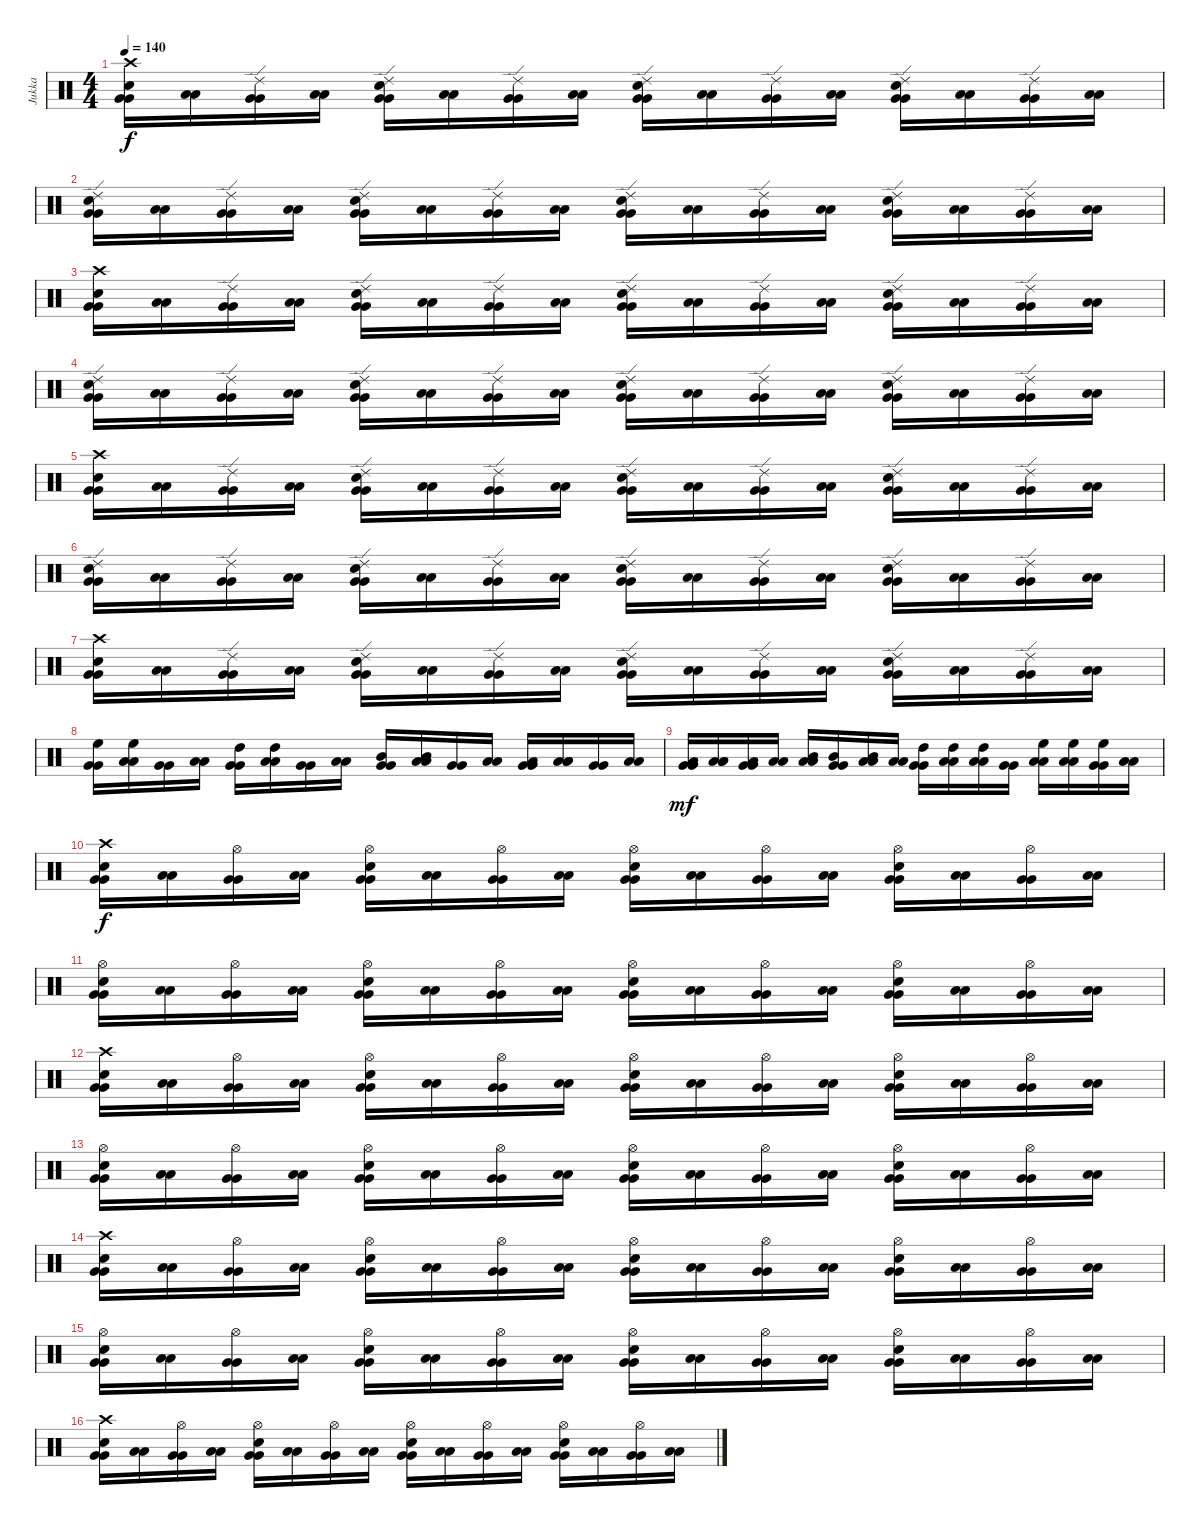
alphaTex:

\track ("Jukka" "Jukka") {instrument percussion}
\staff {score}
\articulation defaults
\ts (4 4)
\tempo 140
\clef neutral
\ks c
("Crash high (hit)" "Electric Snare (hit)" "Very Low Tom (hit)" "Very Low Tom (hit)").16{dy f} ("Low Floor Tom (hit)" "Low Floor Tom (hit)").16 ("Ride (edge) 2" "Very Low Tom (hit)" "Very Low Tom (hit)").16 ("Low Floor Tom (hit)" "Low Floor Tom (hit)").16 ("Ride (edge) 2" "Electric Snare (hit)" "Very Low Tom (hit)" "Very Low Tom (hit)").16 ("Low Floor Tom (hit)" "Low Floor Tom (hit)").16 ("Ride (edge) 2" "Very Low Tom (hit)" "Very Low Tom (hit)").16 ("Low Floor Tom (hit)" "Low Floor Tom (hit)").16 ("Ride (edge) 2" "Electric Snare (hit)" "Very Low Tom (hit)" "Very Low Tom (hit)").16 ("Low Floor Tom (hit)" "Low Floor Tom (hit)").16 ("Ride (edge) 2" "Very Low Tom (hit)" "Very Low Tom (hit)").16 ("Low Floor Tom (hit)" "Low Floor Tom (hit)").16 ("Ride (edge) 2" "Electric Snare (hit)" "Very Low Tom (hit)" "Very Low Tom (hit)").16 ("Low Floor Tom (hit)" "Low Floor Tom (hit)").16 ("Ride (edge) 2" "Very Low Tom (hit)" "Very Low Tom (hit)").16 ("Low Floor Tom (hit)" "Low Floor Tom (hit)").16 |
("Ride (edge) 2" "Electric Snare (hit)" "Very Low Tom (hit)" "Very Low Tom (hit)").16 ("Low Floor Tom (hit)" "Low Floor Tom (hit)").16 ("Ride (edge) 2" "Very Low Tom (hit)" "Very Low Tom (hit)").16 ("Low Floor Tom (hit)" "Low Floor Tom (hit)").16 ("Ride (edge) 2" "Electric Snare (hit)" "Very Low Tom (hit)" "Very Low Tom (hit)").16 ("Low Floor Tom (hit)" "Low Floor Tom (hit)").16 ("Ride (edge) 2" "Very Low Tom (hit)" "Very Low Tom (hit)").16 ("Low Floor Tom (hit)" "Low Floor Tom (hit)").16 ("Ride (edge) 2" "Electric Snare (hit)" "Very Low Tom (hit)" "Very Low Tom (hit)").16 ("Low Floor Tom (hit)" "Low Floor Tom (hit)").16 ("Ride (edge) 2" "Very Low Tom (hit)" "Very Low Tom (hit)").16 ("Low Floor Tom (hit)" "Low Floor Tom (hit)").16 ("Ride (edge) 2" "Electric Snare (hit)" "Very Low Tom (hit)" "Very Low Tom (hit)").16 ("Low Floor Tom (hit)" "Low Floor Tom (hit)").16 ("Ride (edge) 2" "Very Low Tom (hit)" "Very Low Tom (hit)").16 ("Low Floor Tom (hit)" "Low Floor Tom (hit)").16 |
("Crash high (hit)" "Electric Snare (hit)" "Very Low Tom (hit)" "Very Low Tom (hit)").16 ("Low Floor Tom (hit)" "Low Floor Tom (hit)").16 ("Ride (edge) 2" "Very Low Tom (hit)" "Very Low Tom (hit)").16 ("Low Floor Tom (hit)" "Low Floor Tom (hit)").16 ("Ride (edge) 2" "Electric Snare (hit)" "Very Low Tom (hit)" "Very Low Tom (hit)").16 ("Low Floor Tom (hit)" "Low Floor Tom (hit)").16 ("Ride (edge) 2" "Very Low Tom (hit)" "Very Low Tom (hit)").16 ("Low Floor Tom (hit)" "Low Floor Tom (hit)").16 ("Ride (edge) 2" "Electric Snare (hit)" "Very Low Tom (hit)" "Very Low Tom (hit)").16 ("Low Floor Tom (hit)" "Low Floor Tom (hit)").16 ("Ride (edge) 2" "Very Low Tom (hit)" "Very Low Tom (hit)").16 ("Low Floor Tom (hit)" "Low Floor Tom (hit)").16 ("Ride (edge) 2" "Electric Snare (hit)" "Very Low Tom (hit)" "Very Low Tom (hit)").16 ("Low Floor Tom (hit)" "Low Floor Tom (hit)").16 ("Ride (edge) 2" "Very Low Tom (hit)" "Very Low Tom (hit)").16 ("Low Floor Tom (hit)" "Low Floor Tom (hit)").16 |
("Ride (edge) 2" "Electric Snare (hit)" "Very Low Tom (hit)" "Very Low Tom (hit)").16 ("Low Floor Tom (hit)" "Low Floor Tom (hit)").16 ("Ride (edge) 2" "Very Low Tom (hit)" "Very Low Tom (hit)").16 ("Low Floor Tom (hit)" "Low Floor Tom (hit)").16 ("Ride (edge) 2" "Electric Snare (hit)" "Very Low Tom (hit)" "Very Low Tom (hit)").16 ("Low Floor Tom (hit)" "Low Floor Tom (hit)").16 ("Ride (edge) 2" "Very Low Tom (hit)" "Very Low Tom (hit)").16 ("Low Floor Tom (hit)" "Low Floor Tom (hit)").16 ("Ride (edge) 2" "Electric Snare (hit)" "Very Low Tom (hit)" "Very Low Tom (hit)").16 ("Low Floor Tom (hit)" "Low Floor Tom (hit)").16 ("Ride (edge) 2" "Very Low Tom (hit)" "Very Low Tom (hit)").16 ("Low Floor Tom (hit)" "Low Floor Tom (hit)").16 ("Ride (edge) 2" "Electric Snare (hit)" "Very Low Tom (hit)" "Very Low Tom (hit)").16 ("Low Floor Tom (hit)" "Low Floor Tom (hit)").16 ("Ride (edge) 2" "Very Low Tom (hit)" "Very Low Tom (hit)").16 ("Low Floor Tom (hit)" "Low Floor Tom (hit)").16 |
("Crash high (hit)" "Electric Snare (hit)" "Very Low Tom (hit)" "Very Low Tom (hit)").16 ("Low Floor Tom (hit)" "Low Floor Tom (hit)").16 ("Ride (edge) 2" "Very Low Tom (hit)" "Very Low Tom (hit)").16 ("Low Floor Tom (hit)" "Low Floor Tom (hit)").16 ("Ride (edge) 2" "Electric Snare (hit)" "Very Low Tom (hit)" "Very Low Tom (hit)").16 ("Low Floor Tom (hit)" "Low Floor Tom (hit)").16 ("Ride (edge) 2" "Very Low Tom (hit)" "Very Low Tom (hit)").16 ("Low Floor Tom (hit)" "Low Floor Tom (hit)").16 ("Ride (edge) 2" "Electric Snare (hit)" "Very Low Tom (hit)" "Very Low Tom (hit)").16 ("Low Floor Tom (hit)" "Low Floor Tom (hit)").16 ("Ride (edge) 2" "Very Low Tom (hit)" "Very Low Tom (hit)").16 ("Low Floor Tom (hit)" "Low Floor Tom (hit)").16 ("Ride (edge) 2" "Electric Snare (hit)" "Very Low Tom (hit)" "Very Low Tom (hit)").16 ("Low Floor Tom (hit)" "Low Floor Tom (hit)").16 ("Ride (edge) 2" "Very Low Tom (hit)" "Very Low Tom (hit)").16 ("Low Floor Tom (hit)" "Low Floor Tom (hit)").16 |
("Ride (edge) 2" "Electric Snare (hit)" "Very Low Tom (hit)" "Very Low Tom (hit)").16 ("Low Floor Tom (hit)" "Low Floor Tom (hit)").16 ("Ride (edge) 2" "Very Low Tom (hit)" "Very Low Tom (hit)").16 ("Low Floor Tom (hit)" "Low Floor Tom (hit)").16 ("Ride (edge) 2" "Electric Snare (hit)" "Very Low Tom (hit)" "Very Low Tom (hit)").16 ("Low Floor Tom (hit)" "Low Floor Tom (hit)").16 ("Ride (edge) 2" "Very Low Tom (hit)" "Very Low Tom (hit)").16 ("Low Floor Tom (hit)" "Low Floor Tom (hit)").16 ("Ride (edge) 2" "Electric Snare (hit)" "Very Low Tom (hit)" "Very Low Tom (hit)").16 ("Low Floor Tom (hit)" "Low Floor Tom (hit)").16 ("Ride (edge) 2" "Very Low Tom (hit)" "Very Low Tom (hit)").16 ("Low Floor Tom (hit)" "Low Floor Tom (hit)").16 ("Ride (edge) 2" "Electric Snare (hit)" "Very Low Tom (hit)" "Very Low Tom (hit)").16 ("Low Floor Tom (hit)" "Low Floor Tom (hit)").16 ("Ride (edge) 2" "Very Low Tom (hit)" "Very Low Tom (hit)").16 ("Low Floor Tom (hit)" "Low Floor Tom (hit)").16 |
("Crash high (hit)" "Electric Snare (hit)" "Very Low Tom (hit)" "Very Low Tom (hit)").16 ("Low Floor Tom (hit)" "Low Floor Tom (hit)").16 ("Ride (edge) 2" "Very Low Tom (hit)" "Very Low Tom (hit)").16 ("Low Floor Tom (hit)" "Low Floor Tom (hit)").16 ("Ride (edge) 2" "Electric Snare (hit)" "Very Low Tom (hit)" "Very Low Tom (hit)").16 ("Low Floor Tom (hit)" "Low Floor Tom (hit)").16 ("Ride (edge) 2" "Very Low Tom (hit)" "Very Low Tom (hit)").16 ("Low Floor Tom (hit)" "Low Floor Tom (hit)").16 ("Ride (edge) 2" "Electric Snare (hit)" "Very Low Tom (hit)" "Very Low Tom (hit)").16 ("Low Floor Tom (hit)" "Low Floor Tom (hit)").16 ("Ride (edge) 2" "Very Low Tom (hit)" "Very Low Tom (hit)").16 ("Low Floor Tom (hit)" "Low Floor Tom (hit)").16 ("Ride (edge) 2" "Electric Snare (hit)" "Very Low Tom (hit)" "Very Low Tom (hit)").16 ("Low Floor Tom (hit)" "Low Floor Tom (hit)").16 ("Ride (edge) 2" "Very Low Tom (hit)" "Very Low Tom (hit)").16 ("Low Floor Tom (hit)" "Low Floor Tom (hit)").16 |
("High Floor Tom (hit)" "Very Low Tom (hit)" "Very Low Tom (hit)").16 ("High Floor Tom (hit)" "Low Floor Tom (hit)" "Low Floor Tom (hit)").16 ("Very Low Tom (hit)" "Very Low Tom (hit)").16 ("Low Floor Tom (hit)" "Low Floor Tom (hit)").16 ("High Tom (hit)" "Very Low Tom (hit)" "Very Low Tom (hit)").16 ("High Tom (hit)" "Low Floor Tom (hit)" "Low Floor Tom (hit)").16 ("Very Low Tom (hit)" "Very Low Tom (hit)").16 ("Low Floor Tom (hit)" "Low Floor Tom (hit)").16 ("Mid Tom (hit)" "Very Low Tom (hit)" "Very Low Tom (hit)").16 ("Mid Tom (hit)" "Low Floor Tom (hit)" "Low Floor Tom (hit)").16 ("Very Low Tom (hit)" "Very Low Tom (hit)").16 ("Low Floor Tom (hit)" "Low Floor Tom (hit)").16 ("Low Tom (hit)" "Very Low Tom (hit)" "Very Low Tom (hit)").16 ("Low Tom (hit)" "Low Floor Tom (hit)" "Low Floor Tom (hit)").16 ("Very Low Tom (hit)" "Very Low Tom (hit)").16 ("Low Floor Tom (hit)" "Low Floor Tom (hit)").16 |
("Low Tom (hit)" "Very Low Tom (hit)" "Very Low Tom (hit)").16{dy mf} ("Low Tom (hit)" "Low Floor Tom (hit)" "Low Floor Tom (hit)").16 ("Low Tom (hit)" "Very Low Tom (hit)" "Very Low Tom (hit)").16 ("Low Floor Tom (hit)" "Low Floor Tom (hit)").16 ("Mid Tom (hit)" "Low Floor Tom (hit)" "Low Floor Tom (hit)").16 ("Mid Tom (hit)" "Very Low Tom (hit)" "Very Low Tom (hit)").16 ("Mid Tom (hit)" "Low Floor Tom (hit)" "Low Floor Tom (hit)").16 ("Low Floor Tom (hit)" "Low Floor Tom (hit)").16 ("High Tom (hit)" "Very Low Tom (hit)" "Very Low Tom (hit)").16 ("High Tom (hit)" "Low Floor Tom (hit)" "Low Floor Tom (hit)").16 ("High Tom (hit)" "Low Floor Tom (hit)" "Low Floor Tom (hit)").16 ("Very Low Tom (hit)" "Very Low Tom (hit)").16 ("High Floor Tom (hit)" "Low Floor Tom (hit)" "Low Floor Tom (hit)").16 ("High Floor Tom (hit)" "Low Floor Tom (hit)" "Low Floor Tom (hit)").16 ("High Floor Tom (hit)" "Very Low Tom (hit)" "Very Low Tom (hit)").16 ("Low Floor Tom (hit)" "Low Floor Tom (hit)").16 |
("Crash high (hit)" "Electric Snare (hit)" "Very Low Tom (hit)" "Very Low Tom (hit)").16{dy f} ("Low Floor Tom (hit)" "Low Floor Tom (hit)").16 ("Hi-Hat (open)" "Very Low Tom (hit)" "Very Low Tom (hit)").16 ("Low Floor Tom (hit)" "Low Floor Tom (hit)").16 ("Hi-Hat (open)" "Electric Snare (hit)" "Very Low Tom (hit)" "Very Low Tom (hit)").16 ("Low Floor Tom (hit)" "Low Floor Tom (hit)").16 ("Hi-Hat (open)" "Very Low Tom (hit)" "Very Low Tom (hit)").16 ("Low Floor Tom (hit)" "Low Floor Tom (hit)").16 ("Hi-Hat (open)" "Electric Snare (hit)" "Very Low Tom (hit)" "Very Low Tom (hit)").16 ("Low Floor Tom (hit)" "Low Floor Tom (hit)").16 ("Hi-Hat (open)" "Very Low Tom (hit)" "Very Low Tom (hit)").16 ("Low Floor Tom (hit)" "Low Floor Tom (hit)").16 ("Hi-Hat (open)" "Electric Snare (hit)" "Very Low Tom (hit)" "Very Low Tom (hit)").16 ("Low Floor Tom (hit)" "Low Floor Tom (hit)").16 ("Hi-Hat (open)" "Very Low Tom (hit)" "Very Low Tom (hit)").16 ("Low Floor Tom (hit)" "Low Floor Tom (hit)").16 |
("Hi-Hat (open)" "Electric Snare (hit)" "Very Low Tom (hit)" "Very Low Tom (hit)").16 ("Low Floor Tom (hit)" "Low Floor Tom (hit)").16 ("Hi-Hat (open)" "Very Low Tom (hit)" "Very Low Tom (hit)").16 ("Low Floor Tom (hit)" "Low Floor Tom (hit)").16 ("Hi-Hat (open)" "Electric Snare (hit)" "Very Low Tom (hit)" "Very Low Tom (hit)").16 ("Low Floor Tom (hit)" "Low Floor Tom (hit)").16 ("Hi-Hat (open)" "Very Low Tom (hit)" "Very Low Tom (hit)").16 ("Low Floor Tom (hit)" "Low Floor Tom (hit)").16 ("Hi-Hat (open)" "Electric Snare (hit)" "Very Low Tom (hit)" "Very Low Tom (hit)").16 ("Low Floor Tom (hit)" "Low Floor Tom (hit)").16 ("Hi-Hat (open)" "Very Low Tom (hit)" "Very Low Tom (hit)").16 ("Low Floor Tom (hit)" "Low Floor Tom (hit)").16 ("Hi-Hat (open)" "Electric Snare (hit)" "Very Low Tom (hit)" "Very Low Tom (hit)").16 ("Low Floor Tom (hit)" "Low Floor Tom (hit)").16 ("Hi-Hat (open)" "Very Low Tom (hit)" "Very Low Tom (hit)").16 ("Low Floor Tom (hit)" "Low Floor Tom (hit)").16 |
("Crash high (hit)" "Electric Snare (hit)" "Very Low Tom (hit)" "Very Low Tom (hit)").16 ("Low Floor Tom (hit)" "Low Floor Tom (hit)").16 ("Hi-Hat (open)" "Very Low Tom (hit)" "Very Low Tom (hit)").16 ("Low Floor Tom (hit)" "Low Floor Tom (hit)").16 ("Hi-Hat (open)" "Electric Snare (hit)" "Very Low Tom (hit)" "Very Low Tom (hit)").16 ("Low Floor Tom (hit)" "Low Floor Tom (hit)").16 ("Hi-Hat (open)" "Very Low Tom (hit)" "Very Low Tom (hit)").16 ("Low Floor Tom (hit)" "Low Floor Tom (hit)").16 ("Hi-Hat (open)" "Electric Snare (hit)" "Very Low Tom (hit)" "Very Low Tom (hit)").16 ("Low Floor Tom (hit)" "Low Floor Tom (hit)").16 ("Hi-Hat (open)" "Very Low Tom (hit)" "Very Low Tom (hit)").16 ("Low Floor Tom (hit)" "Low Floor Tom (hit)").16 ("Hi-Hat (open)" "Electric Snare (hit)" "Very Low Tom (hit)" "Very Low Tom (hit)").16 ("Low Floor Tom (hit)" "Low Floor Tom (hit)").16 ("Hi-Hat (open)" "Very Low Tom (hit)" "Very Low Tom (hit)").16 ("Low Floor Tom (hit)" "Low Floor Tom (hit)").16 |
("Hi-Hat (open)" "Electric Snare (hit)" "Very Low Tom (hit)" "Very Low Tom (hit)").16 ("Low Floor Tom (hit)" "Low Floor Tom (hit)").16 ("Hi-Hat (open)" "Very Low Tom (hit)" "Very Low Tom (hit)").16 ("Low Floor Tom (hit)" "Low Floor Tom (hit)").16 ("Hi-Hat (open)" "Electric Snare (hit)" "Very Low Tom (hit)" "Very Low Tom (hit)").16 ("Low Floor Tom (hit)" "Low Floor Tom (hit)").16 ("Hi-Hat (open)" "Very Low Tom (hit)" "Very Low Tom (hit)").16 ("Low Floor Tom (hit)" "Low Floor Tom (hit)").16 ("Hi-Hat (open)" "Electric Snare (hit)" "Very Low Tom (hit)" "Very Low Tom (hit)").16 ("Low Floor Tom (hit)" "Low Floor Tom (hit)").16 ("Hi-Hat (open)" "Very Low Tom (hit)" "Very Low Tom (hit)").16 ("Low Floor Tom (hit)" "Low Floor Tom (hit)").16 ("Hi-Hat (open)" "Electric Snare (hit)" "Very Low Tom (hit)" "Very Low Tom (hit)").16 ("Low Floor Tom (hit)" "Low Floor Tom (hit)").16 ("Hi-Hat (open)" "Very Low Tom (hit)" "Very Low Tom (hit)").16 ("Low Floor Tom (hit)" "Low Floor Tom (hit)").16 |
("Crash high (hit)" "Electric Snare (hit)" "Very Low Tom (hit)" "Very Low Tom (hit)").16 ("Low Floor Tom (hit)" "Low Floor Tom (hit)").16 ("Hi-Hat (open)" "Very Low Tom (hit)" "Very Low Tom (hit)").16 ("Low Floor Tom (hit)" "Low Floor Tom (hit)").16 ("Hi-Hat (open)" "Electric Snare (hit)" "Very Low Tom (hit)" "Very Low Tom (hit)").16 ("Low Floor Tom (hit)" "Low Floor Tom (hit)").16 ("Hi-Hat (open)" "Very Low Tom (hit)" "Very Low Tom (hit)").16 ("Low Floor Tom (hit)" "Low Floor Tom (hit)").16 ("Hi-Hat (open)" "Electric Snare (hit)" "Very Low Tom (hit)" "Very Low Tom (hit)").16 ("Low Floor Tom (hit)" "Low Floor Tom (hit)").16 ("Hi-Hat (open)" "Very Low Tom (hit)" "Very Low Tom (hit)").16 ("Low Floor Tom (hit)" "Low Floor Tom (hit)").16 ("Hi-Hat (open)" "Electric Snare (hit)" "Very Low Tom (hit)" "Very Low Tom (hit)").16 ("Low Floor Tom (hit)" "Low Floor Tom (hit)").16 ("Hi-Hat (open)" "Very Low Tom (hit)" "Very Low Tom (hit)").16 ("Low Floor Tom (hit)" "Low Floor Tom (hit)").16 |
("Hi-Hat (open)" "Electric Snare (hit)" "Very Low Tom (hit)" "Very Low Tom (hit)").16 ("Low Floor Tom (hit)" "Low Floor Tom (hit)").16 ("Hi-Hat (open)" "Very Low Tom (hit)" "Very Low Tom (hit)").16 ("Low Floor Tom (hit)" "Low Floor Tom (hit)").16 ("Hi-Hat (open)" "Electric Snare (hit)" "Very Low Tom (hit)" "Very Low Tom (hit)").16 ("Low Floor Tom (hit)" "Low Floor Tom (hit)").16 ("Hi-Hat (open)" "Very Low Tom (hit)" "Very Low Tom (hit)").16 ("Low Floor Tom (hit)" "Low Floor Tom (hit)").16 ("Hi-Hat (open)" "Electric Snare (hit)" "Very Low Tom (hit)" "Very Low Tom (hit)").16 ("Low Floor Tom (hit)" "Low Floor Tom (hit)").16 ("Hi-Hat (open)" "Very Low Tom (hit)" "Very Low Tom (hit)").16 ("Low Floor Tom (hit)" "Low Floor Tom (hit)").16 ("Hi-Hat (open)" "Electric Snare (hit)" "Very Low Tom (hit)" "Very Low Tom (hit)").16 ("Low Floor Tom (hit)" "Low Floor Tom (hit)").16 ("Hi-Hat (open)" "Very Low Tom (hit)" "Very Low Tom (hit)").16 ("Low Floor Tom (hit)" "Low Floor Tom (hit)").16 |
("Crash high (hit)" "Electric Snare (hit)" "Very Low Tom (hit)" "Very Low Tom (hit)").16 ("Low Floor Tom (hit)" "Low Floor Tom (hit)").16 ("Hi-Hat (open)" "Very Low Tom (hit)" "Very Low Tom (hit)").16 ("Low Floor Tom (hit)" "Low Floor Tom (hit)").16 ("Hi-Hat (open)" "Electric Snare (hit)" "Very Low Tom (hit)" "Very Low Tom (hit)").16 ("Low Floor Tom (hit)" "Low Floor Tom (hit)").16 ("Hi-Hat (open)" "Very Low Tom (hit)" "Very Low Tom (hit)").16 ("Low Floor Tom (hit)" "Low Floor Tom (hit)").16 ("Hi-Hat (open)" "Electric Snare (hit)" "Very Low Tom (hit)" "Very Low Tom (hit)").16 ("Low Floor Tom (hit)" "Low Floor Tom (hit)").16 ("Hi-Hat (open)" "Very Low Tom (hit)" "Very Low Tom (hit)").16 ("Low Floor Tom (hit)" "Low Floor Tom (hit)").16 ("Hi-Hat (open)" "Electric Snare (hit)" "Very Low Tom (hit)" "Very Low Tom (hit)").16 ("Low Floor Tom (hit)" "Low Floor Tom (hit)").16 ("Hi-Hat (open)" "Very Low Tom (hit)" "Very Low Tom (hit)").16 ("Low Floor Tom (hit)" "Low Floor Tom (hit)").16
